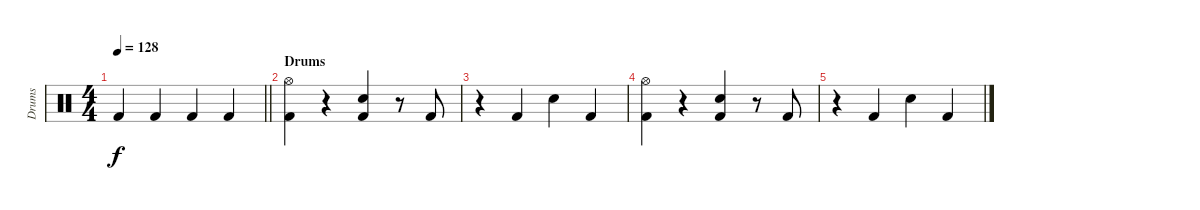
\track ("Drums" "Drums") {instrument percussion}
\staff {score}
\articulation defaults
\ts (4 4)
\tempo 128
\clef neutral
\barLineRight lightlight
\ks c "Kick (hit) 2".4{dy f} "Kick (hit) 2".4 "Kick (hit) 2".4 "Kick (hit) 2".4
|
\section ("" "Drums")
("Hi-Hat (open)" "Kick (hit) 2").4 r.4 ("Snare (hit) 2" "Kick (hit) 2").4 r.8 "Kick (hit) 2".8 |
r.4 "Kick (hit) 2".4 "Snare (hit) 2".4 "Kick (hit) 2".4 |
("Hi-Hat (open)" "Kick (hit) 2").4 r.4 ("Snare (hit) 2" "Kick (hit) 2").4 r.8 "Kick (hit) 2".8 |
r.4 "Kick (hit) 2".4 "Snare (hit) 2".4 "Kick (hit) 2".4
